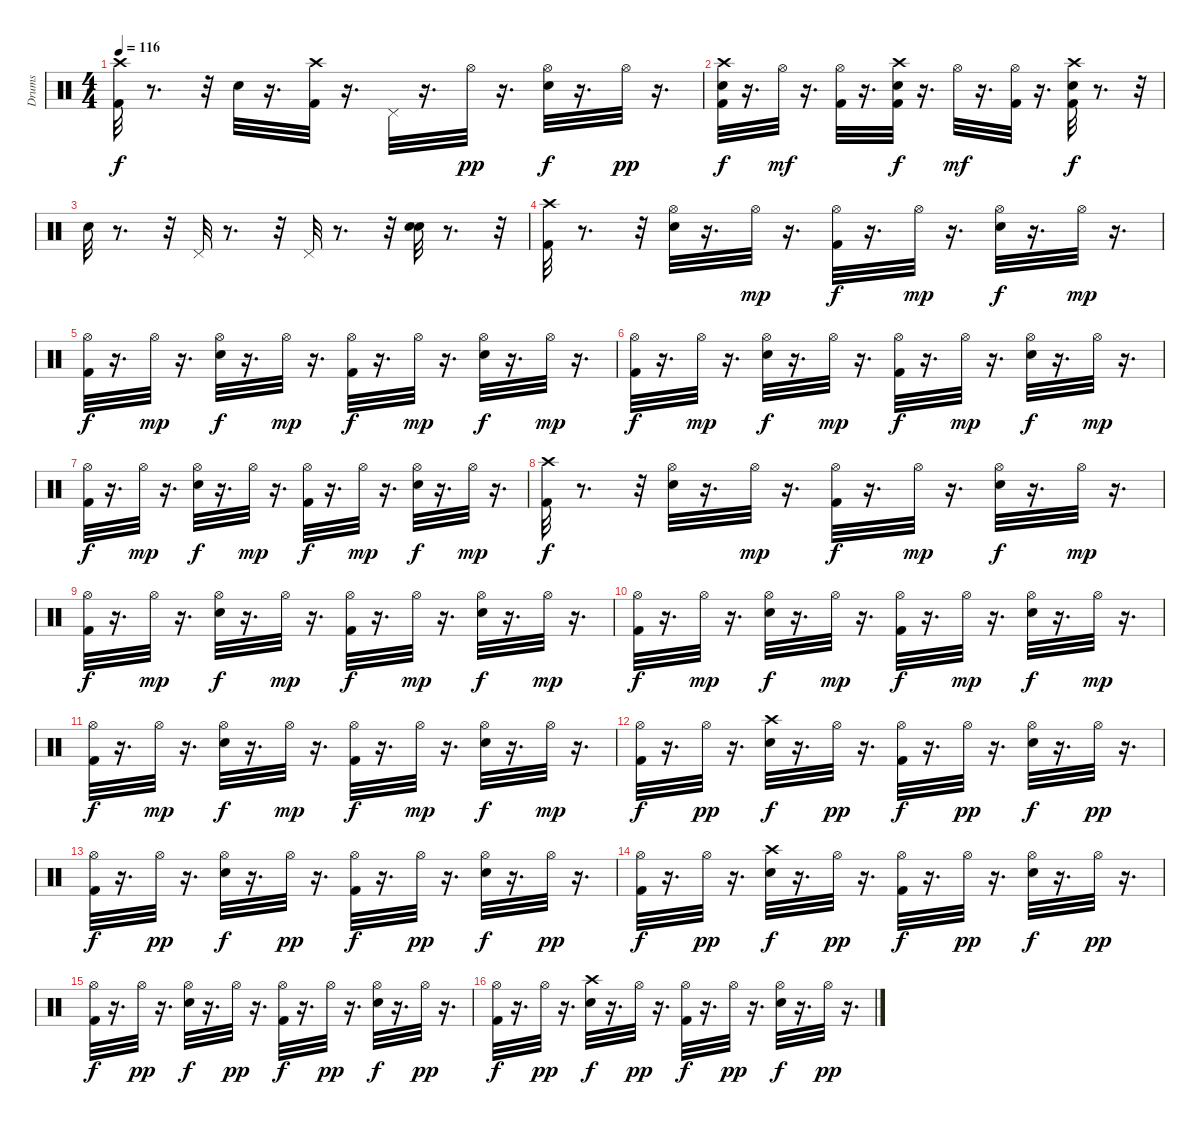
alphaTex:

\track ("Drums" "Drums") {instrument percussion}
\staff {score}
\articulation defaults
\ts (4 4)
\tempo 116
\clef neutral
\ks c
("Crash high (hit)" "Kick (hit) 2").32{dy f} r.8{d} r.32 "Electric Snare (hit)".32 r.16{d} ("Crash high (hit)" "Kick (hit) 2").32 r.16{d} "Pedal Hi-Hat (hit)".32 r.16{d} "Hi-Hat (open)".32{dy pp} r.16{d} ("Electric Snare (hit)" "Hi-Hat (open)").32{dy f} r.16{d} "Hi-Hat (open)".32{dy pp} r.16{d} |
("Electric Snare (hit)" "Crash high (hit)" "Kick (hit) 2").32{dy f} r.16{d} "Hi-Hat (open)".32{dy mf} r.16{d} ("Kick (hit) 2" "Hi-Hat (open)").32 r.16{d} ("Electric Snare (hit)" "Crash high (hit)" "Kick (hit) 2").32{dy f} r.16{d} "Hi-Hat (open)".32{dy mf} r.16{d} ("Kick (hit) 2" "Hi-Hat (open)").32 r.16{d} ("Electric Snare (hit)" "Crash high (hit)" "Kick (hit) 2").32{dy f} r.8{d} r.32 |
"Electric Snare (hit)".32 r.8{d} r.32 "Pedal Hi-Hat (hit)".32 r.8{d} r.32 "Pedal Hi-Hat (hit)".32 r.8{d} r.32 ("Electric Snare (hit)" "Snare (hit) 2").32 r.8{d} r.32 |
("Crash high (hit)" "Kick (hit) 2").32 r.8{d} r.32 ("Hi-Hat (open)" "Electric Snare (hit)").32 r.16{d} "Hi-Hat (open)".32{dy mp} r.16{d} ("Hi-Hat (open)" "Kick (hit) 2").32{dy f} r.16{d} "Hi-Hat (open)".32{dy mp} r.16{d} ("Hi-Hat (open)" "Electric Snare (hit)").32{dy f} r.16{d} "Hi-Hat (open)".32{dy mp} r.16{d} |
("Kick (hit) 2" "Hi-Hat (open)").32{dy f} r.16{d} "Hi-Hat (open)".32{dy mp} r.16{d} ("Electric Snare (hit)" "Hi-Hat (open)").32{dy f} r.16{d} "Hi-Hat (open)".32{dy mp} r.16{d} ("Kick (hit) 2" "Hi-Hat (open)").32{dy f} r.16{d} "Hi-Hat (open)".32{dy mp} r.16{d} ("Electric Snare (hit)" "Hi-Hat (open)").32{dy f} r.16{d} "Hi-Hat (open)".32{dy mp} r.16{d} |
("Kick (hit) 2" "Hi-Hat (open)").32{dy f} r.16{d} "Hi-Hat (open)".32{dy mp} r.16{d} ("Electric Snare (hit)" "Hi-Hat (open)").32{dy f} r.16{d} "Hi-Hat (open)".32{dy mp} r.16{d} ("Kick (hit) 2" "Hi-Hat (open)").32{dy f} r.16{d} "Hi-Hat (open)".32{dy mp} r.16{d} ("Electric Snare (hit)" "Hi-Hat (open)").32{dy f} r.16{d} "Hi-Hat (open)".32{dy mp} r.16{d} |
("Kick (hit) 2" "Hi-Hat (open)").32{dy f} r.16{d} "Hi-Hat (open)".32{dy mp} r.16{d} ("Electric Snare (hit)" "Hi-Hat (open)").32{dy f} r.16{d} "Hi-Hat (open)".32{dy mp} r.16{d} ("Kick (hit) 2" "Hi-Hat (open)").32{dy f} r.16{d} "Hi-Hat (open)".32{dy mp} r.16{d} ("Electric Snare (hit)" "Hi-Hat (open)").32{dy f} r.16{d} "Hi-Hat (open)".32{dy mp} r.16{d} |
("Crash high (hit)" "Kick (hit) 2").32{dy f} r.8{d} r.32 ("Hi-Hat (open)" "Electric Snare (hit)").32 r.16{d} "Hi-Hat (open)".32{dy mp} r.16{d} ("Hi-Hat (open)" "Kick (hit) 2").32{dy f} r.16{d} "Hi-Hat (open)".32{dy mp} r.16{d} ("Hi-Hat (open)" "Electric Snare (hit)").32{dy f} r.16{d} "Hi-Hat (open)".32{dy mp} r.16{d} |
("Kick (hit) 2" "Hi-Hat (open)").32{dy f} r.16{d} "Hi-Hat (open)".32{dy mp} r.16{d} ("Electric Snare (hit)" "Hi-Hat (open)").32{dy f} r.16{d} "Hi-Hat (open)".32{dy mp} r.16{d} ("Kick (hit) 2" "Hi-Hat (open)").32{dy f} r.16{d} "Hi-Hat (open)".32{dy mp} r.16{d} ("Electric Snare (hit)" "Hi-Hat (open)").32{dy f} r.16{d} "Hi-Hat (open)".32{dy mp} r.16{d} |
("Kick (hit) 2" "Hi-Hat (open)").32{dy f} r.16{d} "Hi-Hat (open)".32{dy mp} r.16{d} ("Electric Snare (hit)" "Hi-Hat (open)").32{dy f} r.16{d} "Hi-Hat (open)".32{dy mp} r.16{d} ("Kick (hit) 2" "Hi-Hat (open)").32{dy f} r.16{d} "Hi-Hat (open)".32{dy mp} r.16{d} ("Electric Snare (hit)" "Hi-Hat (open)").32{dy f} r.16{d} "Hi-Hat (open)".32{dy mp} r.16{d} |
("Kick (hit) 2" "Hi-Hat (open)").32{dy f} r.16{d} "Hi-Hat (open)".32{dy mp} r.16{d} ("Electric Snare (hit)" "Hi-Hat (open)").32{dy f} r.16{d} "Hi-Hat (open)".32{dy mp} r.16{d} ("Kick (hit) 2" "Hi-Hat (open)").32{dy f} r.16{d} "Hi-Hat (open)".32{dy mp} r.16{d} ("Electric Snare (hit)" "Hi-Hat (open)").32{dy f} r.16{d} "Hi-Hat (open)".32{dy mp} r.16{d} |
("Kick (hit) 2" "Hi-Hat (open)").32{dy f} r.16{d} "Hi-Hat (open)".32{dy pp} r.16{d} ("Crash high (hit)" "Electric Snare (hit)").32{dy f} r.16{d} "Hi-Hat (open)".32{dy pp} r.16{d} ("Kick (hit) 2" "Hi-Hat (open)").32{dy f} r.16{d} "Hi-Hat (open)".32{dy pp} r.16{d} ("Hi-Hat (open)" "Electric Snare (hit)").32{dy f} r.16{d} "Hi-Hat (open)".32{dy pp} r.16{d} |
("Kick (hit) 2" "Hi-Hat (open)").32{dy f} r.16{d} "Hi-Hat (open)".32{dy pp} r.16{d} ("Electric Snare (hit)" "Hi-Hat (open)").32{dy f} r.16{d} "Hi-Hat (open)".32{dy pp} r.16{d} ("Kick (hit) 2" "Hi-Hat (open)").32{dy f} r.16{d} "Hi-Hat (open)".32{dy pp} r.16{d} ("Electric Snare (hit)" "Hi-Hat (open)").32{dy f} r.16{d} "Hi-Hat (open)".32{dy pp} r.16{d} |
("Kick (hit) 2" "Hi-Hat (open)").32{dy f} r.16{d} "Hi-Hat (open)".32{dy pp} r.16{d} ("Crash high (hit)" "Electric Snare (hit)").32{dy f} r.16{d} "Hi-Hat (open)".32{dy pp} r.16{d} ("Kick (hit) 2" "Hi-Hat (open)").32{dy f} r.16{d} "Hi-Hat (open)".32{dy pp} r.16{d} ("Hi-Hat (open)" "Electric Snare (hit)").32{dy f} r.16{d} "Hi-Hat (open)".32{dy pp} r.16{d} |
("Kick (hit) 2" "Hi-Hat (open)").32{dy f} r.16{d} "Hi-Hat (open)".32{dy pp} r.16{d} ("Electric Snare (hit)" "Hi-Hat (open)").32{dy f} r.16{d} "Hi-Hat (open)".32{dy pp} r.16{d} ("Kick (hit) 2" "Hi-Hat (open)").32{dy f} r.16{d} "Hi-Hat (open)".32{dy pp} r.16{d} ("Electric Snare (hit)" "Hi-Hat (open)").32{dy f} r.16{d} "Hi-Hat (open)".32{dy pp} r.16{d} |
("Kick (hit) 2" "Hi-Hat (open)").32{dy f} r.16{d} "Hi-Hat (open)".32{dy pp} r.16{d} ("Crash high (hit)" "Electric Snare (hit)").32{dy f} r.16{d} "Hi-Hat (open)".32{dy pp} r.16{d} ("Kick (hit) 2" "Hi-Hat (open)").32{dy f} r.16{d} "Hi-Hat (open)".32{dy pp} r.16{d} ("Hi-Hat (open)" "Electric Snare (hit)").32{dy f} r.16{d} "Hi-Hat (open)".32{dy pp} r.16{d}
